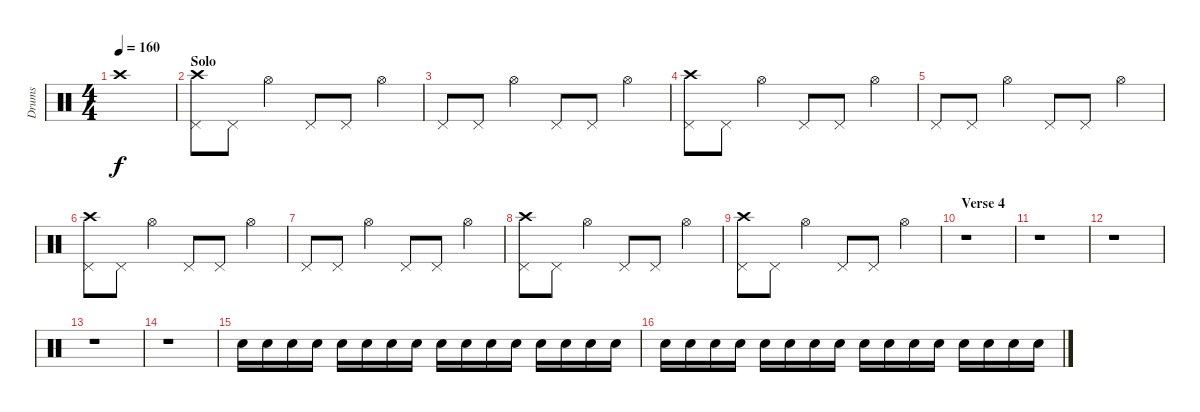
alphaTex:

\track ("Drums" "Drums") {instrument percussion}
\staff {score}
\articulation defaults
\ts (4 4)
\tempo 160
\clef neutral
\ks c "Crash high (hit)".1{dy f}
|
\section ("" "Solo")
("Crash high (hit)" "Pedal Hi-Hat (hit)").8 "Pedal Hi-Hat (hit)".8 "Hi-Hat (open)".4 "Pedal Hi-Hat (hit)".8 "Pedal Hi-Hat (hit)".8 "Hi-Hat (open)".4 |
"Pedal Hi-Hat (hit)".8 "Pedal Hi-Hat (hit)".8 "Hi-Hat (open)".4 "Pedal Hi-Hat (hit)".8 "Pedal Hi-Hat (hit)".8 "Hi-Hat (open)".4 |
("Crash high (hit)" "Pedal Hi-Hat (hit)").8 "Pedal Hi-Hat (hit)".8 "Hi-Hat (open)".4 "Pedal Hi-Hat (hit)".8 "Pedal Hi-Hat (hit)".8 "Hi-Hat (open)".4 |
"Pedal Hi-Hat (hit)".8 "Pedal Hi-Hat (hit)".8 "Hi-Hat (open)".4 "Pedal Hi-Hat (hit)".8 "Pedal Hi-Hat (hit)".8 "Hi-Hat (open)".4 |
("Crash high (hit)" "Pedal Hi-Hat (hit)").8 "Pedal Hi-Hat (hit)".8 "Hi-Hat (open)".4 "Pedal Hi-Hat (hit)".8 "Pedal Hi-Hat (hit)".8 "Hi-Hat (open)".4 |
"Pedal Hi-Hat (hit)".8 "Pedal Hi-Hat (hit)".8 "Hi-Hat (open)".4 "Pedal Hi-Hat (hit)".8 "Pedal Hi-Hat (hit)".8 "Hi-Hat (open)".4 |
("Crash high (hit)" "Pedal Hi-Hat (hit)").8 "Pedal Hi-Hat (hit)".8 "Hi-Hat (open)".4 "Pedal Hi-Hat (hit)".8 "Pedal Hi-Hat (hit)".8 "Hi-Hat (open)".4 |
("Crash high (hit)" "Pedal Hi-Hat (hit)").8 "Pedal Hi-Hat (hit)".8 "Hi-Hat (open)".4 "Pedal Hi-Hat (hit)".8 "Pedal Hi-Hat (hit)".8 "Hi-Hat (open)".4 |
\section ("" "Verse 4")
r.1 |
r.1 |
r.1 |
r.1 |
r.1 |
"Electric Snare (hit)".16{volume 0} "Electric Snare (hit)".16{volume 14} "Electric Snare (hit)".16 "Electric Snare (hit)".16 "Electric Snare (hit)".16 "Electric Snare (hit)".16 "Electric Snare (hit)".16 "Electric Snare (hit)".16 "Electric Snare (hit)".16 "Electric Snare (hit)".16 "Electric Snare (hit)".16 "Electric Snare (hit)".16 "Electric Snare (hit)".16 "Electric Snare (hit)".16 "Electric Snare (hit)".16 "Electric Snare (hit)".16 |
"Electric Snare (hit)".16 "Electric Snare (hit)".16 "Electric Snare (hit)".16 "Electric Snare (hit)".16 "Electric Snare (hit)".16 "Electric Snare (hit)".16 "Electric Snare (hit)".16 "Electric Snare (hit)".16 "Electric Snare (hit)".16 "Electric Snare (hit)".16 "Electric Snare (hit)".16 "Electric Snare (hit)".16 "Electric Snare (hit)".16 "Electric Snare (hit)".16 "Electric Snare (hit)".16 "Electric Snare (hit)".16
